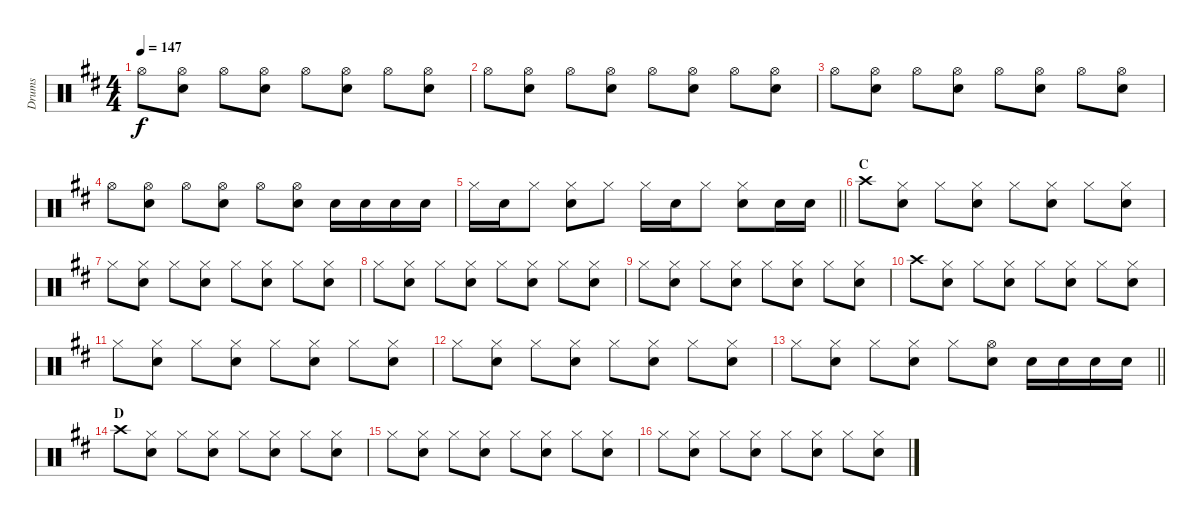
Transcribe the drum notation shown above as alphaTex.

\track ("Drums" "Drums") {instrument percussion}
\staff {score}
\articulation defaults
\ts (4 4)
\tempo 147
\clef neutral
\ks d "Hi-Hat (open)".8{dy f}
("Hi-Hat (open)" "Snare (hit) 2").8 "Hi-Hat (open)".8 ("Hi-Hat (open)" "Snare (hit) 2").8 "Hi-Hat (open)".8 ("Hi-Hat (open)" "Snare (hit) 2").8 "Hi-Hat (open)".8 ("Hi-Hat (open)" "Snare (hit) 2").8 |
"Hi-Hat (open)".8 ("Hi-Hat (open)" "Snare (hit) 2").8 "Hi-Hat (open)".8 ("Hi-Hat (open)" "Snare (hit) 2").8 "Hi-Hat (open)".8 ("Hi-Hat (open)" "Snare (hit) 2").8 "Hi-Hat (open)".8 ("Hi-Hat (open)" "Snare (hit) 2").8 |
"Hi-Hat (open)".8 ("Hi-Hat (open)" "Snare (hit) 2").8 "Hi-Hat (open)".8 ("Hi-Hat (open)" "Snare (hit) 2").8 "Hi-Hat (open)".8 ("Hi-Hat (open)" "Snare (hit) 2").8 "Hi-Hat (open)".8 ("Hi-Hat (open)" "Snare (hit) 2").8 |
"Hi-Hat (open)".8 ("Hi-Hat (open)" "Snare (hit) 2").8 "Hi-Hat (open)".8 ("Hi-Hat (open)" "Snare (hit) 2").8 "Hi-Hat (open)".8 ("Hi-Hat (open)" "Snare (hit) 2").8 "Snare (hit) 2".16 "Snare (hit) 2".16 "Snare (hit) 2".16 "Snare (hit) 2".16 |
\barLineRight lightlight "Hi-Hat (closed)".16 "Snare (hit) 2".16 "Hi-Hat (closed)".8
("Hi-Hat (closed)" "Snare (hit) 2").8 "Hi-Hat (closed)".8 "Hi-Hat (closed)".16 "Snare (hit) 2".16 "Hi-Hat (closed)".8 ("Hi-Hat (closed)" "Snare (hit) 2").8 "Snare (hit) 2".16 "Snare (hit) 2".16 |
\section ("" "C")
"Crash high (hit)".8 ("Hi-Hat (closed)" "Snare (hit) 2").8 "Hi-Hat (closed)".8 ("Hi-Hat (closed)" "Snare (hit) 2").8 "Hi-Hat (closed)".8 ("Hi-Hat (closed)" "Snare (hit) 2").8 "Hi-Hat (closed)".8 ("Hi-Hat (closed)" "Snare (hit) 2").8 |
"Hi-Hat (closed)".8 ("Hi-Hat (closed)" "Snare (hit) 2").8 "Hi-Hat (closed)".8 ("Hi-Hat (closed)" "Snare (hit) 2").8 "Hi-Hat (closed)".8 ("Hi-Hat (closed)" "Snare (hit) 2").8 "Hi-Hat (closed)".8 ("Hi-Hat (closed)" "Snare (hit) 2").8 |
"Hi-Hat (closed)".8 ("Hi-Hat (closed)" "Snare (hit) 2").8 "Hi-Hat (closed)".8 ("Hi-Hat (closed)" "Snare (hit) 2").8 "Hi-Hat (closed)".8 ("Hi-Hat (closed)" "Snare (hit) 2").8 "Hi-Hat (closed)".8 ("Hi-Hat (closed)" "Snare (hit) 2").8 |
"Hi-Hat (closed)".8 ("Hi-Hat (closed)" "Snare (hit) 2").8 "Hi-Hat (closed)".8 ("Hi-Hat (closed)" "Snare (hit) 2").8 "Hi-Hat (closed)".8 ("Hi-Hat (closed)" "Snare (hit) 2").8 "Hi-Hat (closed)".8 ("Hi-Hat (closed)" "Snare (hit) 2").8 |
"Crash high (hit)".8 ("Hi-Hat (closed)" "Snare (hit) 2").8 "Hi-Hat (closed)".8 ("Hi-Hat (closed)" "Snare (hit) 2").8 "Hi-Hat (closed)".8 ("Hi-Hat (closed)" "Snare (hit) 2").8 "Hi-Hat (closed)".8 ("Hi-Hat (closed)" "Snare (hit) 2").8 |
"Hi-Hat (closed)".8 ("Hi-Hat (closed)" "Snare (hit) 2").8 "Hi-Hat (closed)".8 ("Hi-Hat (closed)" "Snare (hit) 2").8 "Hi-Hat (closed)".8 ("Hi-Hat (closed)" "Snare (hit) 2").8 "Hi-Hat (closed)".8 ("Hi-Hat (closed)" "Snare (hit) 2").8 |
"Hi-Hat (closed)".8 ("Hi-Hat (closed)" "Snare (hit) 2").8 "Hi-Hat (closed)".8 ("Hi-Hat (closed)" "Snare (hit) 2").8 "Hi-Hat (closed)".8 ("Hi-Hat (closed)" "Snare (hit) 2").8 "Hi-Hat (closed)".8 ("Hi-Hat (closed)" "Snare (hit) 2").8 |
\barLineRight lightlight "Hi-Hat (closed)".8
("Hi-Hat (closed)" "Snare (hit) 2").8 "Hi-Hat (closed)".8 ("Hi-Hat (closed)" "Snare (hit) 2").8 "Hi-Hat (closed)".8 ("Hi-Hat (open)" "Snare (hit) 2").8 "Snare (hit) 2".16 "Snare (hit) 2".16 "Snare (hit) 2".16 "Snare (hit) 2".16 |
\section ("" "D")
"Crash high (hit)".8 ("Hi-Hat (closed)" "Snare (hit) 2").8 "Hi-Hat (closed)".8 ("Hi-Hat (closed)" "Snare (hit) 2").8 "Hi-Hat (closed)".8 ("Hi-Hat (closed)" "Snare (hit) 2").8 "Hi-Hat (closed)".8 ("Hi-Hat (closed)" "Snare (hit) 2").8 |
"Hi-Hat (closed)".8 ("Hi-Hat (closed)" "Snare (hit) 2").8 "Hi-Hat (closed)".8 ("Hi-Hat (closed)" "Snare (hit) 2").8 "Hi-Hat (closed)".8 ("Hi-Hat (closed)" "Snare (hit) 2").8 "Hi-Hat (closed)".8 ("Hi-Hat (closed)" "Snare (hit) 2").8 |
"Hi-Hat (closed)".8 ("Hi-Hat (closed)" "Snare (hit) 2").8 "Hi-Hat (closed)".8 ("Hi-Hat (closed)" "Snare (hit) 2").8 "Hi-Hat (closed)".8 ("Hi-Hat (closed)" "Snare (hit) 2").8 "Hi-Hat (closed)".8 ("Hi-Hat (closed)" "Snare (hit) 2").8
